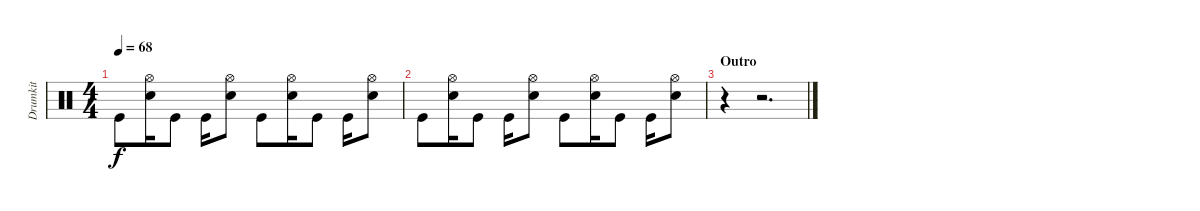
\track ("Drumkit" "Drumkit") {instrument percussion}
\staff {score}
\articulation defaults
\ts (4 4)
\tempo 68
\clef neutral
\ks c "Kick (hit)".8{dy f}
("Snare (hit) 2" "Hi-Hat (open)").16 "Kick (hit)".8 "Kick (hit)".16 ("Hi-Hat (open)" "Snare (hit) 2").8 "Kick (hit)".8 ("Snare (hit) 2" "Hi-Hat (open)").16 "Kick (hit)".8 "Kick (hit)".16 ("Snare (hit) 2" "Hi-Hat (open)").8 |
"Kick (hit)".8 ("Snare (hit) 2" "Hi-Hat (open)").16 "Kick (hit)".8 "Kick (hit)".16 ("Hi-Hat (open)" "Snare (hit) 2").8 "Kick (hit)".8 ("Snare (hit) 2" "Hi-Hat (open)").16 "Kick (hit)".8 "Kick (hit)".16 ("Snare (hit) 2" "Hi-Hat (open)").8 |
\section ("" "Outro")
r.4 r.2{d}
